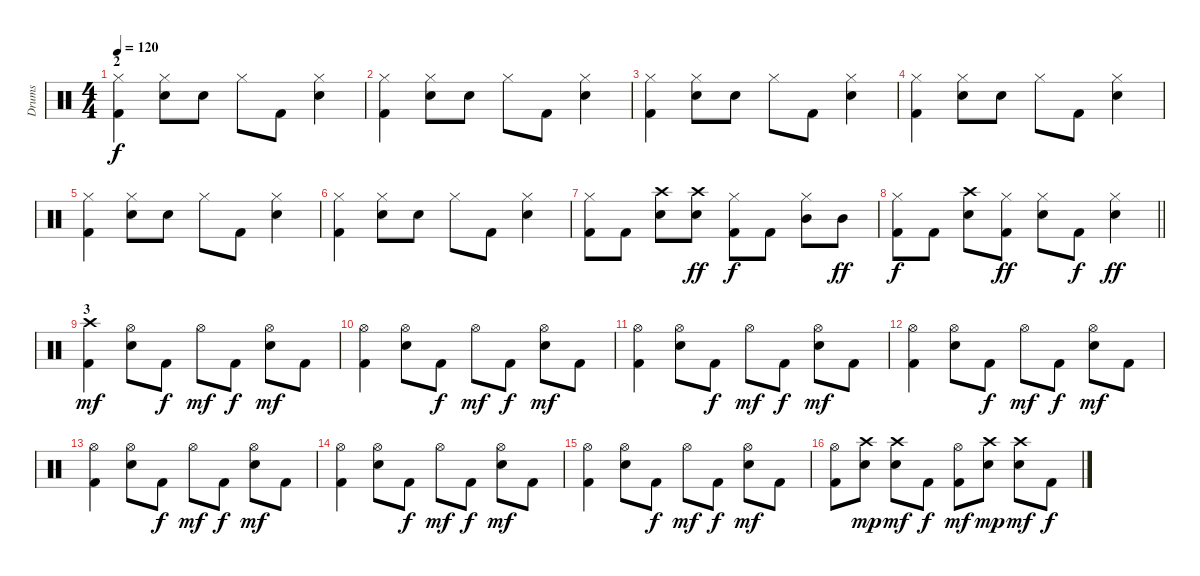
\track ("Drums" "Drums") {instrument percussion}
\staff {score}
\articulation defaults
\ts (4 4)
\section ("" "2")
\tempo 120
\clef neutral
\ks c
("Kick (hit) 2" "Hi-Hat (closed)").4{dy f} ("Hi-Hat (closed)" "Electric Snare (hit)").8 "Electric Snare (hit)".8 "Hi-Hat (closed)".8 "Kick (hit) 2".8 ("Electric Snare (hit)" "Hi-Hat (closed)").4 |
("Kick (hit) 2" "Hi-Hat (closed)").4 ("Hi-Hat (closed)" "Electric Snare (hit)").8 "Electric Snare (hit)".8 "Hi-Hat (closed)".8 "Kick (hit) 2".8 ("Electric Snare (hit)" "Hi-Hat (closed)").4 |
("Kick (hit) 2" "Hi-Hat (closed)").4 ("Hi-Hat (closed)" "Electric Snare (hit)").8 "Electric Snare (hit)".8 "Hi-Hat (closed)".8 "Kick (hit) 2".8 ("Electric Snare (hit)" "Hi-Hat (closed)").4 |
("Kick (hit) 2" "Hi-Hat (closed)").4 ("Hi-Hat (closed)" "Electric Snare (hit)").8 "Electric Snare (hit)".8 "Hi-Hat (closed)".8 "Kick (hit) 2".8 ("Electric Snare (hit)" "Hi-Hat (closed)").4 |
("Kick (hit) 2" "Hi-Hat (closed)").4 ("Hi-Hat (closed)" "Electric Snare (hit)").8 "Electric Snare (hit)".8 "Hi-Hat (closed)".8 "Kick (hit) 2".8 ("Electric Snare (hit)" "Hi-Hat (closed)").4 |
("Kick (hit) 2" "Hi-Hat (closed)").4 ("Hi-Hat (closed)" "Electric Snare (hit)").8 "Electric Snare (hit)".8 "Hi-Hat (closed)".8 "Kick (hit) 2".8 ("Electric Snare (hit)" "Hi-Hat (closed)").4 |
("Kick (hit) 2" "Hi-Hat (closed)").8 "Kick (hit) 2".8 ("Crash high (hit)" "Electric Snare (hit)").8 ("Crash high (hit)" "Electric Snare (hit)").8{dy ff} ("Kick (hit) 2" "Hi-Hat (closed)").8{dy f} "Kick (hit) 2".8 ("Mid Tom (hit)" "Hi-Hat (closed)").8 "Mid Tom (hit)".8{dy ff} |
\barLineRight lightlight
("Kick (hit) 2" "Hi-Hat (closed)").8{dy f} "Kick (hit) 2".8 ("Crash high (hit)" "Electric Snare (hit)").8 ("Hi-Hat (closed)" "Kick (hit) 2").8{dy ff} ("Hi-Hat (closed)" "Electric Snare (hit)").8 "Kick (hit) 2".8{dy f} ("Hi-Hat (closed)" "Electric Snare (hit)").4{dy ff} |
\section ("" "3")
("Kick (hit) 2" "Crash high (hit)").4{dy mf} ("Hi-Hat (open)" "Electric Snare (hit)").8 "Kick (hit) 2".8{dy f} "Hi-Hat (open)".8{dy mf} "Kick (hit) 2".8{dy f} ("Electric Snare (hit)" "Hi-Hat (open)").8{dy mf} "Kick (hit) 2".8 |
("Kick (hit) 2" "Hi-Hat (open)").4 ("Hi-Hat (open)" "Electric Snare (hit)").8 "Kick (hit) 2".8{dy f} "Hi-Hat (open)".8{dy mf} "Kick (hit) 2".8{dy f} ("Electric Snare (hit)" "Hi-Hat (open)").8{dy mf} "Kick (hit) 2".8 |
("Kick (hit) 2" "Hi-Hat (open)").4 ("Hi-Hat (open)" "Electric Snare (hit)").8 "Kick (hit) 2".8{dy f} "Hi-Hat (open)".8{dy mf} "Kick (hit) 2".8{dy f} ("Electric Snare (hit)" "Hi-Hat (open)").8{dy mf} "Kick (hit) 2".8 |
("Kick (hit) 2" "Hi-Hat (open)").4 ("Hi-Hat (open)" "Electric Snare (hit)").8 "Kick (hit) 2".8{dy f} "Hi-Hat (open)".8{dy mf} "Kick (hit) 2".8{dy f} ("Electric Snare (hit)" "Hi-Hat (open)").8{dy mf} "Kick (hit) 2".8 |
("Kick (hit) 2" "Hi-Hat (open)").4 ("Hi-Hat (open)" "Electric Snare (hit)").8 "Kick (hit) 2".8{dy f} "Hi-Hat (open)".8{dy mf} "Kick (hit) 2".8{dy f} ("Electric Snare (hit)" "Hi-Hat (open)").8{dy mf} "Kick (hit) 2".8 |
("Kick (hit) 2" "Hi-Hat (open)").4 ("Hi-Hat (open)" "Electric Snare (hit)").8 "Kick (hit) 2".8{dy f} "Hi-Hat (open)".8{dy mf} "Kick (hit) 2".8{dy f} ("Electric Snare (hit)" "Hi-Hat (open)").8{dy mf} "Kick (hit) 2".8 |
("Kick (hit) 2" "Hi-Hat (open)").4 ("Hi-Hat (open)" "Electric Snare (hit)").8 "Kick (hit) 2".8{dy f} "Hi-Hat (open)".8{dy mf} "Kick (hit) 2".8{dy f} ("Electric Snare (hit)" "Hi-Hat (open)").8{dy mf} "Kick (hit) 2".8 |
("Kick (hit) 2" "Hi-Hat (open)").8 ("Electric Snare (hit)" "Crash high (hit)").8{dy mp} ("Electric Snare (hit)" "Crash high (hit)").8{dy mf} "Kick (hit) 2".8{dy f} ("Kick (hit) 2" "Hi-Hat (open)").8{dy mf} ("Electric Snare (hit)" "Crash high (hit)").8{dy mp} ("Electric Snare (hit)" "Crash high (hit)").8{dy mf} "Kick (hit) 2".8{dy f}
